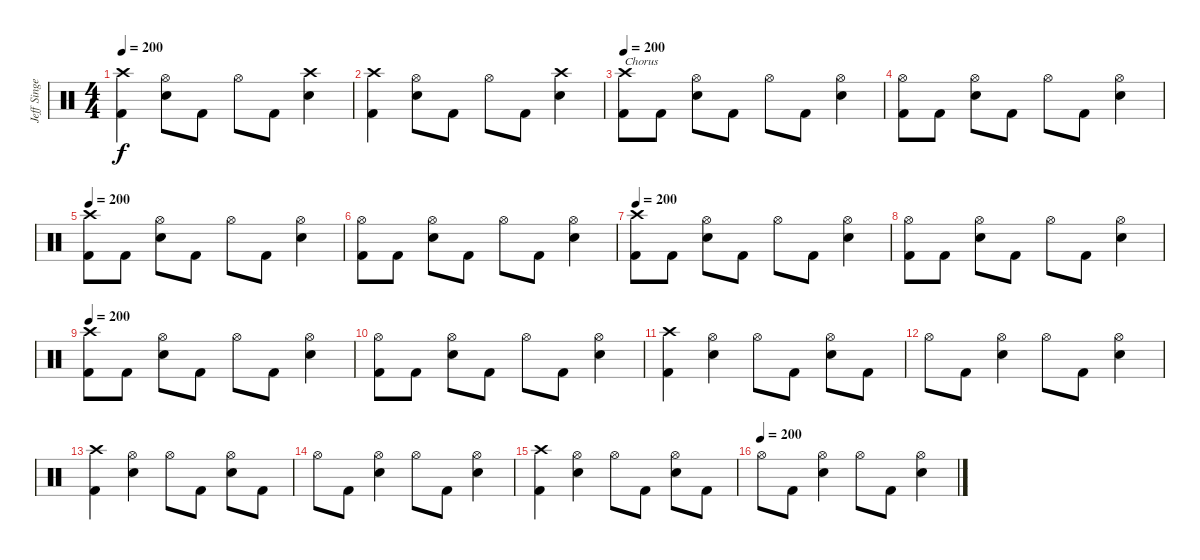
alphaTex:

\track ("Jeff Singer" "Jeff Singe") {instrument percussion}
\staff {score}
\articulation defaults
\ts (4 4)
\tempo 200
\clef neutral
\ks c
("Crash high (hit)" "Kick (hit) 2").4{dy f} ("Hi-Hat (open)" "Snare (hit) 2").8 "Kick (hit) 2".8 "Hi-Hat (open)".8 "Kick (hit) 2".8 ("Crash high (hit)" "Snare (hit) 2").4 |
("Crash high (hit)" "Kick (hit) 2").4 ("Hi-Hat (open)" "Snare (hit) 2").8 "Kick (hit) 2".8 "Hi-Hat (open)".8 "Kick (hit) 2".8 ("Crash high (hit)" "Snare (hit) 2").4 |
\tempo 200
("Crash high (hit)" "Kick (hit) 2").8{txt "Chorus"} "Kick (hit) 2".8 ("Hi-Hat (open)" "Snare (hit) 2").8 "Kick (hit) 2".8 "Hi-Hat (open)".8 "Kick (hit) 2".8 ("Hi-Hat (open)" "Snare (hit) 2").4 |
("Hi-Hat (open)" "Kick (hit) 2").8 "Kick (hit) 2".8 ("Hi-Hat (open)" "Snare (hit) 2").8 "Kick (hit) 2".8 "Hi-Hat (open)".8 "Kick (hit) 2".8 ("Hi-Hat (open)" "Snare (hit) 2").4 |
\tempo 200
("Crash high (hit)" "Kick (hit) 2").8 "Kick (hit) 2".8 ("Hi-Hat (open)" "Snare (hit) 2").8 "Kick (hit) 2".8 "Hi-Hat (open)".8 "Kick (hit) 2".8 ("Hi-Hat (open)" "Snare (hit) 2").4 |
("Hi-Hat (open)" "Kick (hit) 2").8 "Kick (hit) 2".8 ("Hi-Hat (open)" "Snare (hit) 2").8 "Kick (hit) 2".8 "Hi-Hat (open)".8 "Kick (hit) 2".8 ("Hi-Hat (open)" "Snare (hit) 2").4 |
\tempo 200
("Crash high (hit)" "Kick (hit) 2").8 "Kick (hit) 2".8 ("Hi-Hat (open)" "Snare (hit) 2").8 "Kick (hit) 2".8 "Hi-Hat (open)".8 "Kick (hit) 2".8 ("Hi-Hat (open)" "Snare (hit) 2").4 |
("Hi-Hat (open)" "Kick (hit) 2").8 "Kick (hit) 2".8 ("Hi-Hat (open)" "Snare (hit) 2").8 "Kick (hit) 2".8 "Hi-Hat (open)".8 "Kick (hit) 2".8 ("Hi-Hat (open)" "Snare (hit) 2").4 |
\tempo 200
("Crash high (hit)" "Kick (hit) 2").8 "Kick (hit) 2".8 ("Hi-Hat (open)" "Snare (hit) 2").8 "Kick (hit) 2".8 "Hi-Hat (open)".8 "Kick (hit) 2".8 ("Hi-Hat (open)" "Snare (hit) 2").4 |
("Hi-Hat (open)" "Kick (hit) 2").8 "Kick (hit) 2".8 ("Hi-Hat (open)" "Snare (hit) 2").8 "Kick (hit) 2".8 "Hi-Hat (open)".8 "Kick (hit) 2".8 ("Hi-Hat (open)" "Snare (hit) 2").4 |
("Crash high (hit)" "Kick (hit) 2").4 ("Hi-Hat (open)" "Snare (hit) 2").4 "Hi-Hat (open)".8 "Kick (hit) 2".8 ("Hi-Hat (open)" "Snare (hit) 2").8 "Kick (hit) 2".8 |
"Hi-Hat (open)".8 "Kick (hit) 2".8 ("Hi-Hat (open)" "Snare (hit) 2").4 "Hi-Hat (open)".8 "Kick (hit) 2".8 ("Hi-Hat (open)" "Snare (hit) 2").4 |
("Crash high (hit)" "Kick (hit) 2").4 ("Hi-Hat (open)" "Snare (hit) 2").4 "Hi-Hat (open)".8 "Kick (hit) 2".8 ("Hi-Hat (open)" "Snare (hit) 2").8 "Kick (hit) 2".8 |
"Hi-Hat (open)".8 "Kick (hit) 2".8 ("Hi-Hat (open)" "Snare (hit) 2").4 "Hi-Hat (open)".8 "Kick (hit) 2".8 ("Hi-Hat (open)" "Snare (hit) 2").4 |
("Crash high (hit)" "Kick (hit) 2").4 ("Hi-Hat (open)" "Snare (hit) 2").4 "Hi-Hat (open)".8 "Kick (hit) 2".8 ("Hi-Hat (open)" "Snare (hit) 2").8 "Kick (hit) 2".8 |
\tempo (200)
"Hi-Hat (open)".8 "Kick (hit) 2".8 ("Hi-Hat (open)" "Snare (hit) 2").4 "Hi-Hat (open)".8 "Kick (hit) 2".8 ("Hi-Hat (open)" "Snare (hit) 2").4
